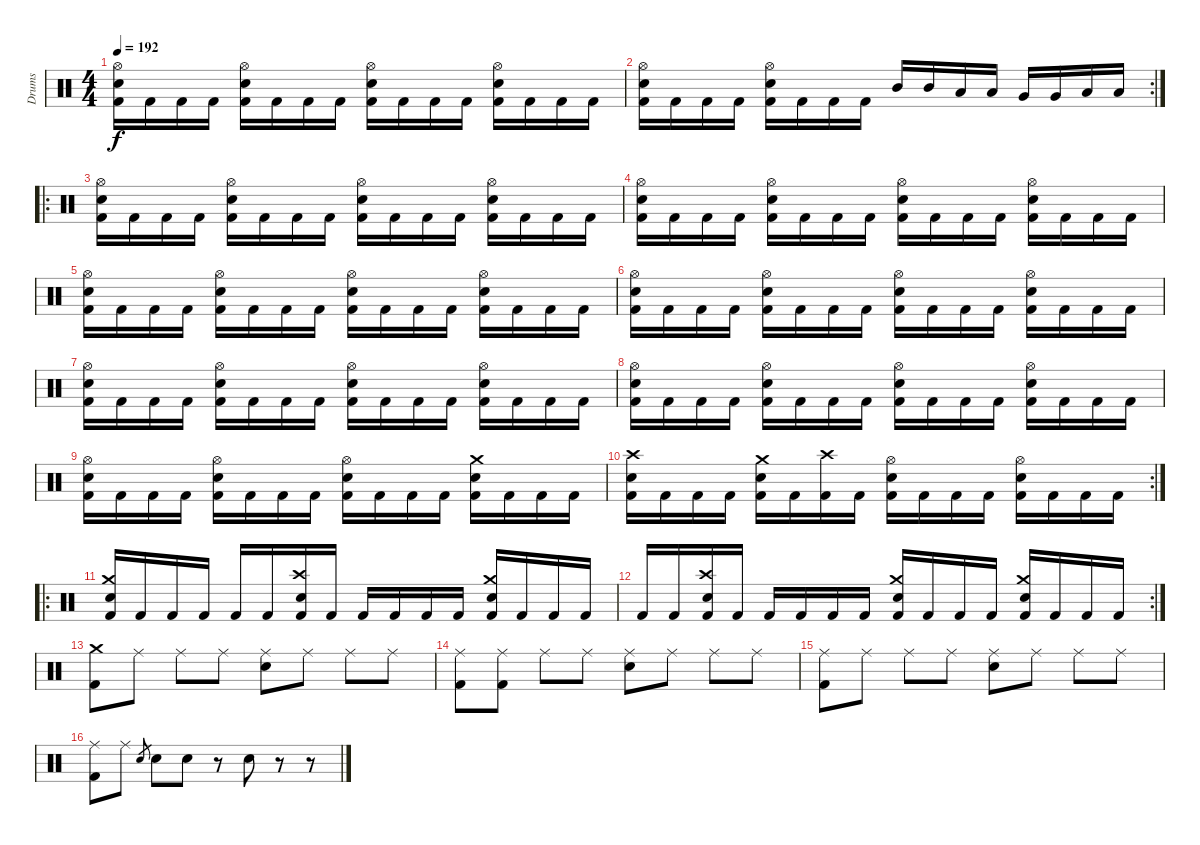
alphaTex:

\track ("Drums" "Drums") {instrument percussion}
\staff {score}
\articulation defaults
\ts (4 4)
\tempo 192
\clef neutral
\ks c
("Hi-Hat (open)" "Snare (hit) 2" "Kick (hit) 2").16{dy f} "Kick (hit) 2".16 "Kick (hit) 2".16 "Kick (hit) 2".16 ("Hi-Hat (open)" "Snare (hit) 2" "Kick (hit) 2").16 "Kick (hit) 2".16 "Kick (hit) 2".16 "Kick (hit) 2".16 ("Hi-Hat (open)" "Snare (hit) 2" "Kick (hit) 2").16 "Kick (hit) 2".16 "Kick (hit) 2".16 "Kick (hit) 2".16 ("Hi-Hat (open)" "Snare (hit) 2" "Kick (hit) 2").16 "Kick (hit) 2".16 "Kick (hit) 2".16 "Kick (hit) 2".16 |
\rc 2
("Hi-Hat (open)" "Snare (hit) 2" "Kick (hit) 2").16 "Kick (hit) 2".16 "Kick (hit) 2".16 "Kick (hit) 2".16 ("Hi-Hat (open)" "Snare (hit) 2" "Kick (hit) 2").16 "Kick (hit) 2".16 "Kick (hit) 2".16 "Kick (hit) 2".16 "Mid Tom (hit)".16 "Mid Tom (hit)".16 "Low Tom (hit)".16 "Low Tom (hit)".16 "Very Low Tom (hit)".16 "Very Low Tom (hit)".16 "Low Floor Tom (hit)".16 "Low Floor Tom (hit)".16 |
\ro
("Hi-Hat (open)" "Snare (hit) 2" "Kick (hit) 2").16 "Kick (hit) 2".16 "Kick (hit) 2".16 "Kick (hit) 2".16 ("Hi-Hat (open)" "Snare (hit) 2" "Kick (hit) 2").16 "Kick (hit) 2".16 "Kick (hit) 2".16 "Kick (hit) 2".16 ("Hi-Hat (open)" "Snare (hit) 2" "Kick (hit) 2").16 "Kick (hit) 2".16 "Kick (hit) 2".16 "Kick (hit) 2".16 ("Hi-Hat (open)" "Snare (hit) 2" "Kick (hit) 2").16 "Kick (hit) 2".16 "Kick (hit) 2".16 "Kick (hit) 2".16 |
("Hi-Hat (open)" "Snare (hit) 2" "Kick (hit) 2").16 "Kick (hit) 2".16 "Kick (hit) 2".16 "Kick (hit) 2".16 ("Hi-Hat (open)" "Snare (hit) 2" "Kick (hit) 2").16 "Kick (hit) 2".16 "Kick (hit) 2".16 "Kick (hit) 2".16 ("Hi-Hat (open)" "Snare (hit) 2" "Kick (hit) 2").16 "Kick (hit) 2".16 "Kick (hit) 2".16 "Kick (hit) 2".16 ("Hi-Hat (open)" "Snare (hit) 2" "Kick (hit) 2").16 "Kick (hit) 2".16 "Kick (hit) 2".16 "Kick (hit) 2".16 |
("Hi-Hat (open)" "Snare (hit) 2" "Kick (hit) 2").16 "Kick (hit) 2".16 "Kick (hit) 2".16 "Kick (hit) 2".16 ("Hi-Hat (open)" "Snare (hit) 2" "Kick (hit) 2").16 "Kick (hit) 2".16 "Kick (hit) 2".16 "Kick (hit) 2".16 ("Hi-Hat (open)" "Snare (hit) 2" "Kick (hit) 2").16 "Kick (hit) 2".16 "Kick (hit) 2".16 "Kick (hit) 2".16 ("Hi-Hat (open)" "Snare (hit) 2" "Kick (hit) 2").16 "Kick (hit) 2".16 "Kick (hit) 2".16 "Kick (hit) 2".16 |
("Hi-Hat (open)" "Snare (hit) 2" "Kick (hit) 2").16 "Kick (hit) 2".16 "Kick (hit) 2".16 "Kick (hit) 2".16 ("Hi-Hat (open)" "Snare (hit) 2" "Kick (hit) 2").16 "Kick (hit) 2".16 "Kick (hit) 2".16 "Kick (hit) 2".16 ("Hi-Hat (open)" "Snare (hit) 2" "Kick (hit) 2").16 "Kick (hit) 2".16 "Kick (hit) 2".16 "Kick (hit) 2".16 ("Hi-Hat (open)" "Snare (hit) 2" "Kick (hit) 2").16 "Kick (hit) 2".16 "Kick (hit) 2".16 "Kick (hit) 2".16 |
("Hi-Hat (open)" "Snare (hit) 2" "Kick (hit) 2").16 "Kick (hit) 2".16 "Kick (hit) 2".16 "Kick (hit) 2".16 ("Hi-Hat (open)" "Snare (hit) 2" "Kick (hit) 2").16 "Kick (hit) 2".16 "Kick (hit) 2".16 "Kick (hit) 2".16 ("Hi-Hat (open)" "Snare (hit) 2" "Kick (hit) 2").16 "Kick (hit) 2".16 "Kick (hit) 2".16 "Kick (hit) 2".16 ("Hi-Hat (open)" "Snare (hit) 2" "Kick (hit) 2").16 "Kick (hit) 2".16 "Kick (hit) 2".16 "Kick (hit) 2".16 |
("Hi-Hat (open)" "Snare (hit) 2" "Kick (hit) 2").16 "Kick (hit) 2".16 "Kick (hit) 2".16 "Kick (hit) 2".16 ("Hi-Hat (open)" "Snare (hit) 2" "Kick (hit) 2").16 "Kick (hit) 2".16 "Kick (hit) 2".16 "Kick (hit) 2".16 ("Hi-Hat (open)" "Snare (hit) 2" "Kick (hit) 2").16 "Kick (hit) 2".16 "Kick (hit) 2".16 "Kick (hit) 2".16 ("Hi-Hat (open)" "Snare (hit) 2" "Kick (hit) 2").16 "Kick (hit) 2".16 "Kick (hit) 2".16 "Kick (hit) 2".16 |
("Hi-Hat (open)" "Snare (hit) 2" "Kick (hit) 2").16 "Kick (hit) 2".16 "Kick (hit) 2".16 "Kick (hit) 2".16 ("Hi-Hat (open)" "Snare (hit) 2" "Kick (hit) 2").16 "Kick (hit) 2".16 "Kick (hit) 2".16 "Kick (hit) 2".16 ("Hi-Hat (open)" "Snare (hit) 2" "Kick (hit) 2").16 "Kick (hit) 2".16 "Kick (hit) 2".16 "Kick (hit) 2".16 ("Crash medium (hit)" "Snare (hit) 2" "Kick (hit) 2").16 "Kick (hit) 2".16 "Kick (hit) 2".16 "Kick (hit) 2".16 |
\rc 2
("Crash high (hit)" "Snare (hit) 2" "Kick (hit) 2").16 "Kick (hit) 2".16 "Kick (hit) 2".16 "Kick (hit) 2".16 ("Crash medium (hit)" "Snare (hit) 2" "Kick (hit) 2").16 "Kick (hit) 2".16 ("Crash high (hit)" "Kick (hit) 2").16 "Kick (hit) 2".16 ("Hi-Hat (open)" "Snare (hit) 2" "Kick (hit) 2").16 "Kick (hit) 2".16 "Kick (hit) 2".16 "Kick (hit) 2".16 ("Hi-Hat (open)" "Snare (hit) 2" "Kick (hit) 2").16 "Kick (hit) 2".16 "Kick (hit) 2".16 "Kick (hit) 2".16 |
\ro
("Crash medium (hit)" "Electric Snare (hit)" "Kick (hit) 2").16 "Kick (hit) 2".16 "Kick (hit) 2".16 "Kick (hit) 2".16 "Kick (hit) 2".16 "Kick (hit) 2".16 ("Crash high (hit)" "Electric Snare (hit)" "Kick (hit) 2").16 "Kick (hit) 2".16 "Kick (hit) 2".16 "Kick (hit) 2".16 "Kick (hit) 2".16 "Kick (hit) 2".16 ("Crash medium (hit)" "Electric Snare (hit)" "Kick (hit) 2").16 "Kick (hit) 2".16 "Kick (hit) 2".16 "Kick (hit) 2".16 |
\rc 2 "Kick (hit) 2".16 "Kick (hit) 2".16
("Crash high (hit)" "Electric Snare (hit)" "Kick (hit) 2").16 "Kick (hit) 2".16 "Kick (hit) 2".16 "Kick (hit) 2".16 "Kick (hit) 2".16 "Kick (hit) 2".16 ("Crash medium (hit)" "Electric Snare (hit)" "Kick (hit) 2").16 "Kick (hit) 2".16 "Kick (hit) 2".16 "Kick (hit) 2".16 ("Crash medium (hit)" "Electric Snare (hit)" "Kick (hit) 2").16 "Kick (hit) 2".16 "Kick (hit) 2".16 "Kick (hit) 2".16 |
("Crash medium (hit)" "Kick (hit) 2").8 "Ride (middle)".8 "Ride (middle)".8 "Ride (middle)".8 ("Ride (middle)" "Electric Snare (hit)").8 "Ride (middle)".8 "Ride (middle)".8 "Ride (middle)".8 |
("Ride (middle)" "Kick (hit) 2").8 ("Ride (middle)" "Kick (hit) 2").8 "Ride (middle)".8 "Ride (middle)".8 ("Ride (middle)" "Electric Snare (hit)").8 "Ride (middle)".8 "Ride (middle)".8 "Ride (middle)".8 |
("Ride (middle)" "Kick (hit) 2").8 "Ride (middle)".8 "Ride (middle)".8 "Ride (middle)".8 ("Ride (middle)" "Electric Snare (hit)").8 "Ride (middle)".8 "Ride (middle)".8 "Ride (middle)".8 |
("Ride (middle)" "Kick (hit) 2").8 "Ride (middle)".8 "Electric Snare (hit)".8{gr} "Electric Snare (hit)".8 "Electric Snare (hit)".8 r.8 "Electric Snare (hit)".8 r.8 r.8
